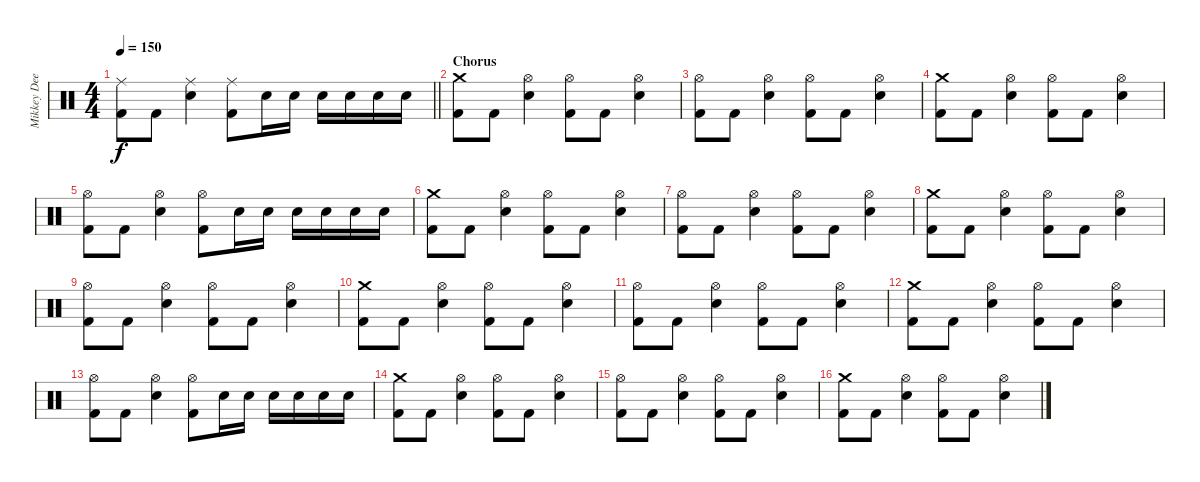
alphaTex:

\track ("Mikkey Dee" "Mikkey Dee") {instrument percussion}
\staff {score}
\articulation defaults
\ts (4 4)
\tempo 150
\clef neutral
\barLineRight lightlight
\ks c
("Ride (middle)" "Kick (hit) 2").8{dy f} "Kick (hit) 2".8 ("Ride (middle)" "Electric Snare (hit)").4 ("Ride (middle)" "Kick (hit) 2").8 "Electric Snare (hit)".16 "Electric Snare (hit)".16 "Electric Snare (hit)".16 "Electric Snare (hit)".16 "Electric Snare (hit)".16 "Electric Snare (hit)".16 |
\section ("" "Chorus")
("Crash medium (hit)" "Kick (hit) 2").8 "Kick (hit) 2".8 ("Hi-Hat (open)" "Electric Snare (hit)").4 ("Hi-Hat (open)" "Kick (hit) 2").8 "Kick (hit) 2".8 ("Hi-Hat (open)" "Electric Snare (hit)").4 |
("Hi-Hat (open)" "Kick (hit) 2").8 "Kick (hit) 2".8 ("Hi-Hat (open)" "Electric Snare (hit)").4 ("Hi-Hat (open)" "Kick (hit) 2").8 "Kick (hit) 2".8 ("Hi-Hat (open)" "Electric Snare (hit)").4 |
("Crash medium (hit)" "Kick (hit) 2").8 "Kick (hit) 2".8 ("Hi-Hat (open)" "Electric Snare (hit)").4 ("Hi-Hat (open)" "Kick (hit) 2").8 "Kick (hit) 2".8 ("Hi-Hat (open)" "Electric Snare (hit)").4 |
("Hi-Hat (open)" "Kick (hit) 2").8 "Kick (hit) 2".8 ("Hi-Hat (open)" "Electric Snare (hit)").4 ("Hi-Hat (open)" "Kick (hit) 2").8 "Electric Snare (hit)".16 "Electric Snare (hit)".16 "Electric Snare (hit)".16 "Electric Snare (hit)".16 "Electric Snare (hit)".16 "Electric Snare (hit)".16 |
("Crash medium (hit)" "Kick (hit) 2").8 "Kick (hit) 2".8 ("Hi-Hat (open)" "Electric Snare (hit)").4 ("Hi-Hat (open)" "Kick (hit) 2").8 "Kick (hit) 2".8 ("Hi-Hat (open)" "Electric Snare (hit)").4 |
("Hi-Hat (open)" "Kick (hit) 2").8 "Kick (hit) 2".8 ("Hi-Hat (open)" "Electric Snare (hit)").4 ("Hi-Hat (open)" "Kick (hit) 2").8 "Kick (hit) 2".8 ("Hi-Hat (open)" "Electric Snare (hit)").4 |
("Crash medium (hit)" "Kick (hit) 2").8 "Kick (hit) 2".8 ("Hi-Hat (open)" "Electric Snare (hit)").4 ("Hi-Hat (open)" "Kick (hit) 2").8 "Kick (hit) 2".8 ("Hi-Hat (open)" "Electric Snare (hit)").4 |
("Hi-Hat (open)" "Kick (hit) 2").8 "Kick (hit) 2".8 ("Hi-Hat (open)" "Electric Snare (hit)").4 ("Hi-Hat (open)" "Kick (hit) 2").8 "Kick (hit) 2".8 ("Hi-Hat (open)" "Electric Snare (hit)").4 |
("Crash medium (hit)" "Kick (hit) 2").8 "Kick (hit) 2".8 ("Hi-Hat (open)" "Electric Snare (hit)").4 ("Hi-Hat (open)" "Kick (hit) 2").8 "Kick (hit) 2".8 ("Hi-Hat (open)" "Electric Snare (hit)").4 |
("Hi-Hat (open)" "Kick (hit) 2").8 "Kick (hit) 2".8 ("Hi-Hat (open)" "Electric Snare (hit)").4 ("Hi-Hat (open)" "Kick (hit) 2").8 "Kick (hit) 2".8 ("Hi-Hat (open)" "Electric Snare (hit)").4 |
("Crash medium (hit)" "Kick (hit) 2").8 "Kick (hit) 2".8 ("Hi-Hat (open)" "Electric Snare (hit)").4 ("Hi-Hat (open)" "Kick (hit) 2").8 "Kick (hit) 2".8 ("Hi-Hat (open)" "Electric Snare (hit)").4 |
("Hi-Hat (open)" "Kick (hit) 2").8 "Kick (hit) 2".8 ("Hi-Hat (open)" "Electric Snare (hit)").4 ("Hi-Hat (open)" "Kick (hit) 2").8 "Electric Snare (hit)".16 "Electric Snare (hit)".16 "Electric Snare (hit)".16 "Electric Snare (hit)".16 "Electric Snare (hit)".16 "Electric Snare (hit)".16 |
("Crash medium (hit)" "Kick (hit) 2").8 "Kick (hit) 2".8 ("Hi-Hat (open)" "Electric Snare (hit)").4 ("Hi-Hat (open)" "Kick (hit) 2").8 "Kick (hit) 2".8 ("Hi-Hat (open)" "Electric Snare (hit)").4 |
("Hi-Hat (open)" "Kick (hit) 2").8 "Kick (hit) 2".8 ("Hi-Hat (open)" "Electric Snare (hit)").4 ("Hi-Hat (open)" "Kick (hit) 2").8 "Kick (hit) 2".8 ("Hi-Hat (open)" "Electric Snare (hit)").4 |
("Crash medium (hit)" "Kick (hit) 2").8 "Kick (hit) 2".8 ("Hi-Hat (open)" "Electric Snare (hit)").4 ("Hi-Hat (open)" "Kick (hit) 2").8 "Kick (hit) 2".8 ("Hi-Hat (open)" "Electric Snare (hit)").4
